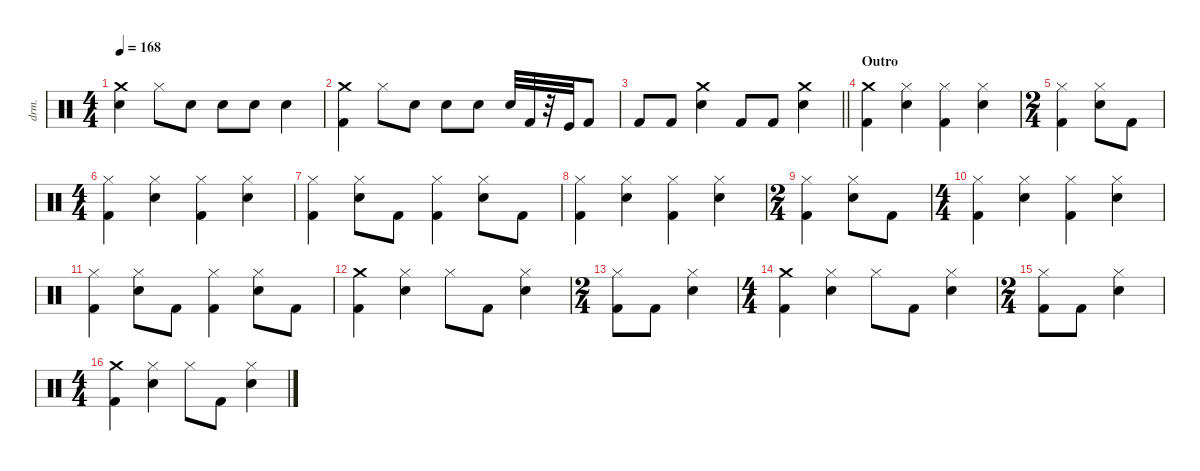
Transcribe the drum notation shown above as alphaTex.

\defaultSystemsLayout 4
\hideDynamics
\bracketExtendMode nobrackets
\otherSystemsTrackNameOrientation horizontal
\track ("Drums" "drm.") {instrument percussion}
\staff {score}
\articulation defaults
\ts (4 4)
\tempo 168
\clef neutral
\ks c
("Snare (hit) 2" "Crash medium (hit)").4{dy fff} "Hi-Hat (closed)".8 "Snare (hit) 2".8 "Snare (hit) 2".8 "Snare (hit) 2".8 "Snare (hit) 2".4 |
("Kick (hit) 2" "Crash medium (hit)").4 "Hi-Hat (closed)".8 "Snare (hit) 2".8 "Snare (hit) 2".8 "Snare (hit) 2".8 "Snare (hit) 2".32 "Kick (hit) 2".32 r.32 "Kick (hit)".32 "Kick (hit) 2".8 |
\barLineRight lightlight "Kick (hit) 2".8 "Kick (hit) 2".8
("Snare (hit) 2" "Crash medium (hit)").4 "Kick (hit) 2".8 "Kick (hit) 2".8 ("Crash medium (hit)" "Snare (hit) 2").4 |
\section ("" "Outro")
("Kick (hit) 2" "Crash medium (hit)").4 ("Hi-Hat (closed)" "Snare (hit) 2").4 ("Hi-Hat (closed)" "Kick (hit) 2").4 ("Snare (hit) 2" "Hi-Hat (closed)").4 |
\ts (2 4)
\beaming (8 2 2)
("Hi-Hat (closed)" "Kick (hit) 2").4 ("Snare (hit) 2" "Hi-Hat (closed)").8 "Kick (hit) 2".8 |
\ts (4 4)
\beaming (8 2 2 2 2)
("Kick (hit) 2" "Hi-Hat (closed)").4 ("Snare (hit) 2" "Hi-Hat (closed)").4 ("Kick (hit) 2" "Hi-Hat (closed)").4 ("Snare (hit) 2" "Hi-Hat (closed)").4 |
("Hi-Hat (closed)" "Kick (hit) 2").4 ("Snare (hit) 2" "Hi-Hat (closed)").8 "Kick (hit) 2".8 ("Kick (hit) 2" "Hi-Hat (closed)").4 ("Hi-Hat (closed)" "Snare (hit) 2").8 "Kick (hit) 2".8 |
("Hi-Hat (closed)" "Kick (hit) 2").4 ("Hi-Hat (closed)" "Snare (hit) 2").4 ("Hi-Hat (closed)" "Kick (hit) 2").4 ("Snare (hit) 2" "Hi-Hat (closed)").4 |
\ts (2 4)
\beaming (8 2 2)
("Hi-Hat (closed)" "Kick (hit) 2").4 ("Snare (hit) 2" "Hi-Hat (closed)").8 "Kick (hit) 2".8 |
\ts (4 4)
\beaming (8 2 2 2 2)
("Kick (hit) 2" "Hi-Hat (closed)").4 ("Snare (hit) 2" "Hi-Hat (closed)").4 ("Kick (hit) 2" "Hi-Hat (closed)").4 ("Snare (hit) 2" "Hi-Hat (closed)").4 |
("Hi-Hat (closed)" "Kick (hit) 2").4 ("Snare (hit) 2" "Hi-Hat (closed)").8 "Kick (hit) 2".8 ("Kick (hit) 2" "Hi-Hat (closed)").4 ("Hi-Hat (closed)" "Snare (hit) 2").8 "Kick (hit) 2".8 |
("Kick (hit) 2" "Crash medium (hit)").4 ("Hi-Hat (closed)" "Snare (hit) 2").4 "Hi-Hat (closed)".8 "Kick (hit) 2".8 ("Snare (hit) 2" "Hi-Hat (closed)").4 |
\ts (2 4)
\beaming (8 2 2)
("Kick (hit) 2" "Hi-Hat (closed)").8 "Kick (hit) 2".8 ("Snare (hit) 2" "Hi-Hat (closed)").4 |
\ts (4 4)
\beaming (8 2 2 2 2)
("Kick (hit) 2" "Crash medium (hit)").4 ("Hi-Hat (closed)" "Snare (hit) 2").4 "Hi-Hat (closed)".8 "Kick (hit) 2".8 ("Snare (hit) 2" "Hi-Hat (closed)").4 |
\ts (2 4)
\beaming (8 2 2)
("Kick (hit) 2" "Hi-Hat (closed)").8 "Kick (hit) 2".8 ("Snare (hit) 2" "Hi-Hat (closed)").4 |
\ts (4 4)
\beaming (8 2 2 2 2)
("Kick (hit) 2" "Crash medium (hit)").4 ("Hi-Hat (closed)" "Snare (hit) 2").4 "Hi-Hat (closed)".8 "Kick (hit) 2".8 ("Snare (hit) 2" "Hi-Hat (closed)").4
